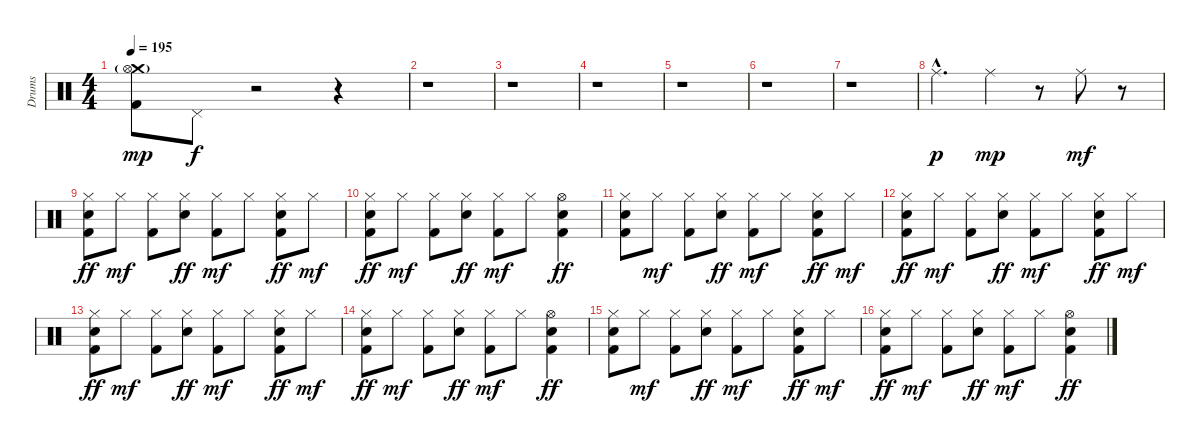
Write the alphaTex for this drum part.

\track ("Drums" "Drums") {instrument percussion}
\staff {score}
\articulation defaults
\ts (4 4)
\tempo 195
\clef neutral
\ks c
("Crash medium (hit)"{g} "Hi-Hat (open)" "Kick (hit) 2").8{dy mp} "Pedal Hi-Hat (hit)".8{dy f} r.2 r.4 |
r.1 |
r.1 |
r.1 |
r.1 |
r.1 |
r.1 |
"Ride (middle)"{hac}.4{d dy p} "Ride (middle)".4{dy mp} r.8 "Ride (middle)".8{dy mf} r.8 |
("Hi-Hat (closed)" "Electric Snare (hit)" "Kick (hit) 2").8{dy ff} "Hi-Hat (closed)".8{dy mf} ("Hi-Hat (closed)" "Kick (hit) 2").8 ("Hi-Hat (closed)" "Electric Snare (hit)").8{dy ff} ("Hi-Hat (closed)" "Kick (hit) 2").8{dy mf} "Hi-Hat (closed)".8 ("Hi-Hat (closed)" "Electric Snare (hit)" "Kick (hit) 2").8{dy ff} "Hi-Hat (closed)".8{dy mf} |
("Hi-Hat (closed)" "Electric Snare (hit)" "Kick (hit) 2").8{dy ff} "Hi-Hat (closed)".8{dy mf} ("Hi-Hat (closed)" "Kick (hit) 2").8 ("Hi-Hat (closed)" "Electric Snare (hit)").8{dy ff} ("Hi-Hat (closed)" "Kick (hit) 2").8{dy mf} "Hi-Hat (closed)".8 ("Hi-Hat (open)" "Electric Snare (hit)" "Kick (hit) 2").4{dy ff} |
("Hi-Hat (closed)" "Electric Snare (hit)" "Kick (hit) 2").8 "Hi-Hat (closed)".8{dy mf} ("Hi-Hat (closed)" "Kick (hit) 2").8 ("Hi-Hat (closed)" "Electric Snare (hit)").8{dy ff} ("Hi-Hat (closed)" "Kick (hit) 2").8{dy mf} "Hi-Hat (closed)".8 ("Hi-Hat (closed)" "Electric Snare (hit)" "Kick (hit) 2").8{dy ff} "Hi-Hat (closed)".8{dy mf} |
("Hi-Hat (closed)" "Electric Snare (hit)" "Kick (hit) 2").8{dy ff} "Hi-Hat (closed)".8{dy mf} ("Hi-Hat (closed)" "Kick (hit) 2").8 ("Hi-Hat (closed)" "Electric Snare (hit)").8{dy ff} ("Hi-Hat (closed)" "Kick (hit) 2").8{dy mf} "Hi-Hat (closed)".8 ("Hi-Hat (closed)" "Electric Snare (hit)" "Kick (hit) 2").8{dy ff} "Hi-Hat (closed)".8{dy mf} |
("Hi-Hat (closed)" "Electric Snare (hit)" "Kick (hit) 2").8{dy ff} "Hi-Hat (closed)".8{dy mf} ("Hi-Hat (closed)" "Kick (hit) 2").8 ("Hi-Hat (closed)" "Electric Snare (hit)").8{dy ff} ("Hi-Hat (closed)" "Kick (hit) 2").8{dy mf} "Hi-Hat (closed)".8 ("Hi-Hat (closed)" "Electric Snare (hit)" "Kick (hit) 2").8{dy ff} "Hi-Hat (closed)".8{dy mf} |
("Hi-Hat (closed)" "Electric Snare (hit)" "Kick (hit) 2").8{dy ff} "Hi-Hat (closed)".8{dy mf} ("Hi-Hat (closed)" "Kick (hit) 2").8 ("Hi-Hat (closed)" "Electric Snare (hit)").8{dy ff} ("Hi-Hat (closed)" "Kick (hit) 2").8{dy mf} "Hi-Hat (closed)".8 ("Hi-Hat (open)" "Electric Snare (hit)" "Kick (hit) 2").4{dy ff} |
("Hi-Hat (closed)" "Electric Snare (hit)" "Kick (hit) 2").8 "Hi-Hat (closed)".8{dy mf} ("Hi-Hat (closed)" "Kick (hit) 2").8 ("Hi-Hat (closed)" "Electric Snare (hit)").8{dy ff} ("Hi-Hat (closed)" "Kick (hit) 2").8{dy mf} "Hi-Hat (closed)".8 ("Hi-Hat (closed)" "Electric Snare (hit)" "Kick (hit) 2").8{dy ff} "Hi-Hat (closed)".8{dy mf} |
("Hi-Hat (closed)" "Electric Snare (hit)" "Kick (hit) 2").8{dy ff} "Hi-Hat (closed)".8{dy mf} ("Hi-Hat (closed)" "Kick (hit) 2").8 ("Hi-Hat (closed)" "Electric Snare (hit)").8{dy ff} ("Hi-Hat (closed)" "Kick (hit) 2").8{dy mf} "Hi-Hat (closed)".8 ("Hi-Hat (open)" "Electric Snare (hit)" "Kick (hit) 2").4{dy ff}
